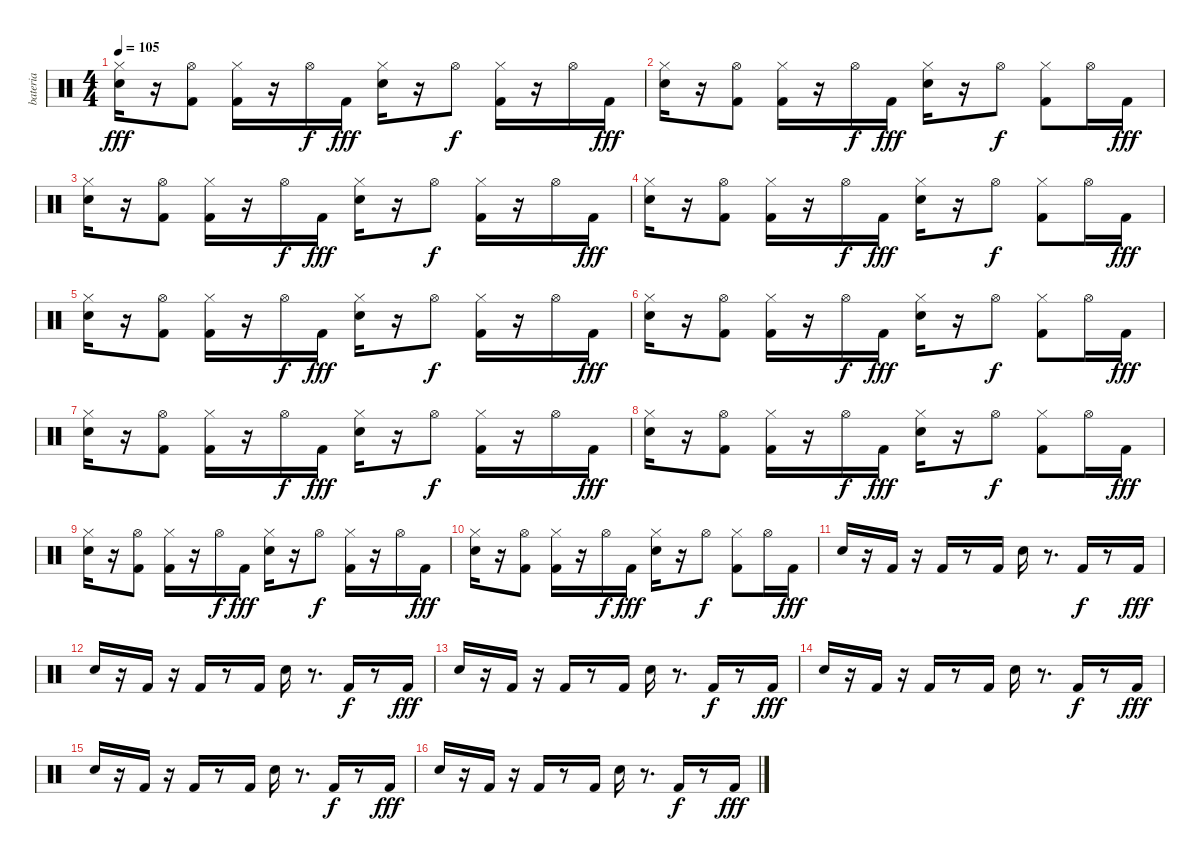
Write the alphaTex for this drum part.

\track ("bateria" "bateria") {instrument percussion}
\staff {score}
\articulation defaults
\ts (4 4)
\tempo 105
\clef neutral
\ks c
("Snare (hit) 2" "Hi-Hat (closed)").16{dy fff} r.16 ("Kick (hit) 2" "Hi-Hat (open)").8 ("Kick (hit) 2" "Hi-Hat (closed)").16 r.16 "Hi-Hat (open)".16{dy f} "Kick (hit) 2".16{dy fff} ("Snare (hit) 2" "Hi-Hat (closed)").16 r.16 "Hi-Hat (open)".8{dy f} ("Hi-Hat (closed)" "Kick (hit) 2").16 r.16 "Hi-Hat (open)".16 "Kick (hit) 2".16{dy fff} |
("Snare (hit) 2" "Hi-Hat (closed)").16 r.16 ("Kick (hit) 2" "Hi-Hat (open)").8 ("Kick (hit) 2" "Hi-Hat (closed)").16 r.16 "Hi-Hat (open)".16{dy f} "Kick (hit) 2".16{dy fff} ("Snare (hit) 2" "Hi-Hat (closed)").16 r.16 "Hi-Hat (open)".8{dy f} ("Hi-Hat (closed)" "Kick (hit) 2").8 "Hi-Hat (open)".16 "Kick (hit) 2".16{dy fff} |
("Snare (hit) 2" "Hi-Hat (closed)").16 r.16 ("Kick (hit) 2" "Hi-Hat (open)").8 ("Kick (hit) 2" "Hi-Hat (closed)").16 r.16 "Hi-Hat (open)".16{dy f} "Kick (hit) 2".16{dy fff} ("Snare (hit) 2" "Hi-Hat (closed)").16 r.16 "Hi-Hat (open)".8{dy f} ("Hi-Hat (closed)" "Kick (hit) 2").16 r.16 "Hi-Hat (open)".16 "Kick (hit) 2".16{dy fff} |
("Snare (hit) 2" "Hi-Hat (closed)").16 r.16 ("Kick (hit) 2" "Hi-Hat (open)").8 ("Kick (hit) 2" "Hi-Hat (closed)").16 r.16 "Hi-Hat (open)".16{dy f} "Kick (hit) 2".16{dy fff} ("Snare (hit) 2" "Hi-Hat (closed)").16 r.16 "Hi-Hat (open)".8{dy f} ("Hi-Hat (closed)" "Kick (hit) 2").8 "Hi-Hat (open)".16 "Kick (hit) 2".16{dy fff} |
("Snare (hit) 2" "Hi-Hat (closed)").16 r.16 ("Kick (hit) 2" "Hi-Hat (open)").8 ("Kick (hit) 2" "Hi-Hat (closed)").16 r.16 "Hi-Hat (open)".16{dy f} "Kick (hit) 2".16{dy fff} ("Snare (hit) 2" "Hi-Hat (closed)").16 r.16 "Hi-Hat (open)".8{dy f} ("Hi-Hat (closed)" "Kick (hit) 2").16 r.16 "Hi-Hat (open)".16 "Kick (hit) 2".16{dy fff} |
("Snare (hit) 2" "Hi-Hat (closed)").16 r.16 ("Kick (hit) 2" "Hi-Hat (open)").8 ("Kick (hit) 2" "Hi-Hat (closed)").16 r.16 "Hi-Hat (open)".16{dy f} "Kick (hit) 2".16{dy fff} ("Snare (hit) 2" "Hi-Hat (closed)").16 r.16 "Hi-Hat (open)".8{dy f} ("Hi-Hat (closed)" "Kick (hit) 2").8 "Hi-Hat (open)".16 "Kick (hit) 2".16{dy fff} |
("Snare (hit) 2" "Hi-Hat (closed)").16 r.16 ("Kick (hit) 2" "Hi-Hat (open)").8 ("Kick (hit) 2" "Hi-Hat (closed)").16 r.16 "Hi-Hat (open)".16{dy f} "Kick (hit) 2".16{dy fff} ("Snare (hit) 2" "Hi-Hat (closed)").16 r.16 "Hi-Hat (open)".8{dy f} ("Hi-Hat (closed)" "Kick (hit) 2").16 r.16 "Hi-Hat (open)".16 "Kick (hit) 2".16{dy fff} |
("Snare (hit) 2" "Hi-Hat (closed)").16 r.16 ("Kick (hit) 2" "Hi-Hat (open)").8 ("Kick (hit) 2" "Hi-Hat (closed)").16 r.16 "Hi-Hat (open)".16{dy f} "Kick (hit) 2".16{dy fff} ("Snare (hit) 2" "Hi-Hat (closed)").16 r.16 "Hi-Hat (open)".8{dy f} ("Hi-Hat (closed)" "Kick (hit) 2").8 "Hi-Hat (open)".16 "Kick (hit) 2".16{dy fff} |
("Snare (hit) 2" "Hi-Hat (closed)").16 r.16 ("Kick (hit) 2" "Hi-Hat (open)").8 ("Kick (hit) 2" "Hi-Hat (closed)").16 r.16 "Hi-Hat (open)".16{dy f} "Kick (hit) 2".16{dy fff} ("Snare (hit) 2" "Hi-Hat (closed)").16 r.16 "Hi-Hat (open)".8{dy f} ("Hi-Hat (closed)" "Kick (hit) 2").16 r.16 "Hi-Hat (open)".16 "Kick (hit) 2".16{dy fff} |
("Snare (hit) 2" "Hi-Hat (closed)").16 r.16 ("Kick (hit) 2" "Hi-Hat (open)").8 ("Kick (hit) 2" "Hi-Hat (closed)").16 r.16 "Hi-Hat (open)".16{dy f} "Kick (hit) 2".16{dy fff} ("Snare (hit) 2" "Hi-Hat (closed)").16 r.16 "Hi-Hat (open)".8{dy f} ("Hi-Hat (closed)" "Kick (hit) 2").8 "Hi-Hat (open)".16 "Kick (hit) 2".16{dy fff} |
"Snare (hit) 2".16 r.16 "Kick (hit) 2".16 r.16 "Kick (hit) 2".16 r.8 "Kick (hit) 2".16 "Snare (hit) 2".16 r.8{d} "Kick (hit) 2".16{dy f} r.8 "Kick (hit) 2".16{dy fff} |
"Snare (hit) 2".16 r.16 "Kick (hit) 2".16 r.16 "Kick (hit) 2".16 r.8 "Kick (hit) 2".16 "Snare (hit) 2".16 r.8{d} "Kick (hit) 2".16{dy f} r.8 "Kick (hit) 2".16{dy fff} |
"Snare (hit) 2".16 r.16 "Kick (hit) 2".16 r.16 "Kick (hit) 2".16 r.8 "Kick (hit) 2".16 "Snare (hit) 2".16 r.8{d} "Kick (hit) 2".16{dy f} r.8 "Kick (hit) 2".16{dy fff} |
"Snare (hit) 2".16 r.16 "Kick (hit) 2".16 r.16 "Kick (hit) 2".16 r.8 "Kick (hit) 2".16 "Snare (hit) 2".16 r.8{d} "Kick (hit) 2".16{dy f} r.8 "Kick (hit) 2".16{dy fff} |
"Snare (hit) 2".16 r.16 "Kick (hit) 2".16 r.16 "Kick (hit) 2".16 r.8 "Kick (hit) 2".16 "Snare (hit) 2".16 r.8{d} "Kick (hit) 2".16{dy f} r.8 "Kick (hit) 2".16{dy fff} |
"Snare (hit) 2".16 r.16 "Kick (hit) 2".16 r.16 "Kick (hit) 2".16 r.8 "Kick (hit) 2".16 "Snare (hit) 2".16 r.8{d} "Kick (hit) 2".16{dy f} r.8 "Kick (hit) 2".16{dy fff}
